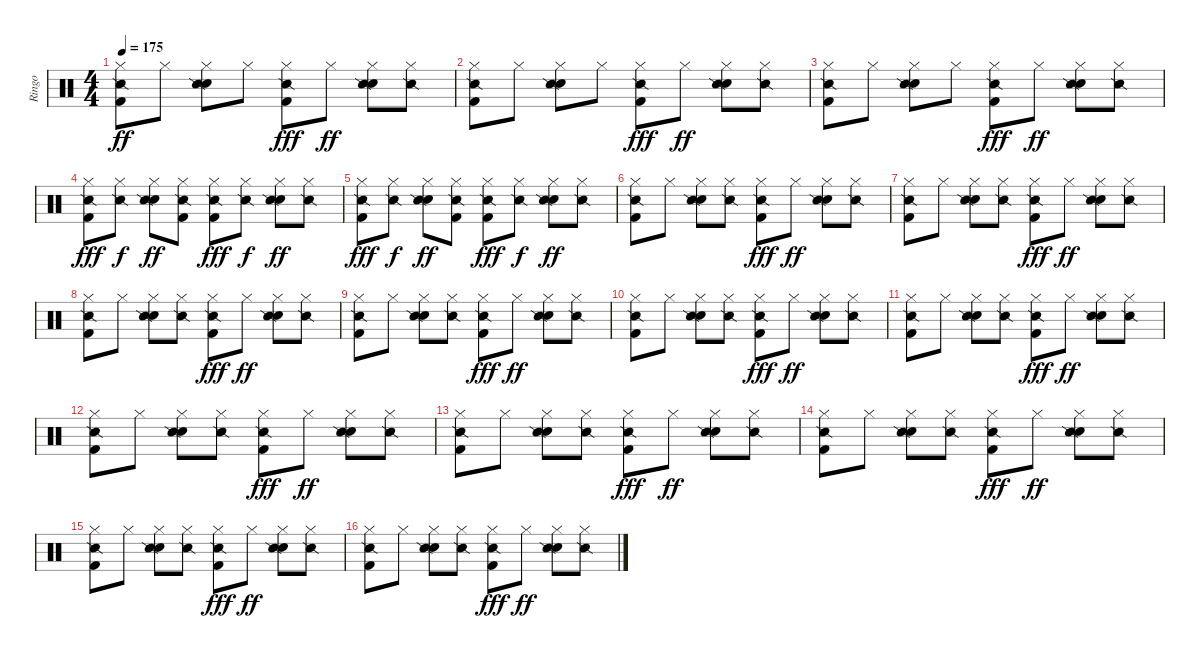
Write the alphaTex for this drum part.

\track ("Ringo" "Ringo") {instrument percussion}
\staff {score}
\articulation defaults
\ts (4 4)
\tempo 175
\clef neutral
\ks c
("Hi-Hat (closed)" "Snare (side stick) 2" "Kick (hit) 2").8{dy ff} "Hi-Hat (closed)".8 ("Hi-Hat (closed)" "Electric Snare (hit)" "Snare (side stick) 2").8 "Hi-Hat (closed)".8 ("Hi-Hat (closed)" "Snare (side stick) 2" "Kick (hit) 2").8{dy fff} "Hi-Hat (closed)".8{dy ff} ("Hi-Hat (closed)" "Electric Snare (hit)" "Snare (side stick) 2").8 ("Hi-Hat (closed)" "Snare (side stick) 2").8 |
("Hi-Hat (closed)" "Snare (side stick) 2" "Kick (hit) 2").8 "Hi-Hat (closed)".8 ("Hi-Hat (closed)" "Electric Snare (hit)" "Snare (side stick) 2").8 "Hi-Hat (closed)".8 ("Hi-Hat (closed)" "Snare (side stick) 2" "Kick (hit) 2").8{dy fff} "Hi-Hat (closed)".8{dy ff} ("Hi-Hat (closed)" "Electric Snare (hit)" "Snare (side stick) 2").8 ("Hi-Hat (closed)" "Snare (side stick) 2").8 |
("Hi-Hat (closed)" "Snare (side stick) 2" "Kick (hit) 2").8 "Hi-Hat (closed)".8 ("Hi-Hat (closed)" "Electric Snare (hit)" "Snare (side stick) 2").8 "Hi-Hat (closed)".8 ("Hi-Hat (closed)" "Snare (side stick) 2" "Kick (hit) 2").8{dy fff} "Hi-Hat (closed)".8{dy ff} ("Hi-Hat (closed)" "Electric Snare (hit)" "Snare (side stick) 2").8 ("Hi-Hat (closed)" "Snare (side stick) 2").8 |
("Hi-Hat (closed)" "Snare (side stick) 2" "Kick (hit) 2").8{dy fff} ("Hi-Hat (closed)" "Snare (side stick) 2").8{dy f} ("Hi-Hat (closed)" "Electric Snare (hit)" "Snare (side stick) 2").8{dy ff} ("Hi-Hat (closed)" "Snare (side stick) 2" "Kick (hit) 2").8 ("Hi-Hat (closed)" "Snare (side stick) 2" "Kick (hit) 2").8{dy fff} ("Hi-Hat (closed)" "Snare (side stick) 2").8{dy f} ("Hi-Hat (closed)" "Electric Snare (hit)" "Snare (side stick) 2").8{dy ff} ("Hi-Hat (closed)" "Snare (side stick) 2").8 |
("Hi-Hat (closed)" "Snare (side stick) 2" "Kick (hit) 2").8{dy fff} ("Hi-Hat (closed)" "Snare (side stick) 2").8{dy f} ("Hi-Hat (closed)" "Electric Snare (hit)" "Snare (side stick) 2").8{dy ff} ("Hi-Hat (closed)" "Snare (side stick) 2" "Kick (hit) 2").8 ("Hi-Hat (closed)" "Snare (side stick) 2" "Kick (hit) 2").8{dy fff} ("Hi-Hat (closed)" "Snare (side stick) 2").8{dy f} ("Hi-Hat (closed)" "Electric Snare (hit)" "Snare (side stick) 2").8{dy ff} ("Hi-Hat (closed)" "Snare (side stick) 2").8 |
("Hi-Hat (closed)" "Snare (side stick) 2" "Kick (hit) 2").8 "Hi-Hat (closed)".8 ("Hi-Hat (closed)" "Electric Snare (hit)" "Snare (side stick) 2").8 ("Hi-Hat (closed)" "Snare (side stick) 2").8 ("Hi-Hat (closed)" "Snare (side stick) 2" "Kick (hit) 2").8{dy fff} "Hi-Hat (closed)".8{dy ff} ("Hi-Hat (closed)" "Electric Snare (hit)" "Snare (side stick) 2").8 ("Hi-Hat (closed)" "Snare (side stick) 2").8 |
("Hi-Hat (closed)" "Snare (side stick) 2" "Kick (hit) 2").8 "Hi-Hat (closed)".8 ("Hi-Hat (closed)" "Electric Snare (hit)" "Snare (side stick) 2").8 ("Hi-Hat (closed)" "Snare (side stick) 2").8 ("Hi-Hat (closed)" "Snare (side stick) 2" "Kick (hit) 2").8{dy fff} "Hi-Hat (closed)".8{dy ff} ("Hi-Hat (closed)" "Electric Snare (hit)" "Snare (side stick) 2").8 ("Hi-Hat (closed)" "Snare (side stick) 2").8 |
("Hi-Hat (closed)" "Snare (side stick) 2" "Kick (hit) 2").8 "Hi-Hat (closed)".8 ("Hi-Hat (closed)" "Electric Snare (hit)" "Snare (side stick) 2").8 ("Hi-Hat (closed)" "Snare (side stick) 2").8 ("Hi-Hat (closed)" "Snare (side stick) 2" "Kick (hit) 2").8{dy fff} "Hi-Hat (closed)".8{dy ff} ("Hi-Hat (closed)" "Electric Snare (hit)" "Snare (side stick) 2").8 ("Hi-Hat (closed)" "Snare (side stick) 2").8 |
("Hi-Hat (closed)" "Snare (side stick) 2" "Kick (hit) 2").8 "Hi-Hat (closed)".8 ("Hi-Hat (closed)" "Electric Snare (hit)" "Snare (side stick) 2").8 ("Hi-Hat (closed)" "Snare (side stick) 2").8 ("Hi-Hat (closed)" "Snare (side stick) 2" "Kick (hit) 2").8{dy fff} "Hi-Hat (closed)".8{dy ff} ("Hi-Hat (closed)" "Electric Snare (hit)" "Snare (side stick) 2").8 ("Hi-Hat (closed)" "Snare (side stick) 2").8 |
("Hi-Hat (closed)" "Snare (side stick) 2" "Kick (hit) 2").8 "Hi-Hat (closed)".8 ("Hi-Hat (closed)" "Electric Snare (hit)" "Snare (side stick) 2").8 ("Hi-Hat (closed)" "Snare (side stick) 2").8 ("Hi-Hat (closed)" "Snare (side stick) 2" "Kick (hit) 2").8{dy fff} "Hi-Hat (closed)".8{dy ff} ("Hi-Hat (closed)" "Electric Snare (hit)" "Snare (side stick) 2").8 ("Hi-Hat (closed)" "Snare (side stick) 2").8 |
("Hi-Hat (closed)" "Snare (side stick) 2" "Kick (hit) 2").8 "Hi-Hat (closed)".8 ("Hi-Hat (closed)" "Electric Snare (hit)" "Snare (side stick) 2").8 ("Hi-Hat (closed)" "Snare (side stick) 2").8 ("Hi-Hat (closed)" "Snare (side stick) 2" "Kick (hit) 2").8{dy fff} "Hi-Hat (closed)".8{dy ff} ("Hi-Hat (closed)" "Electric Snare (hit)" "Snare (side stick) 2").8 ("Hi-Hat (closed)" "Snare (side stick) 2").8 |
("Hi-Hat (closed)" "Snare (side stick) 2" "Kick (hit) 2").8 "Hi-Hat (closed)".8 ("Hi-Hat (closed)" "Electric Snare (hit)" "Snare (side stick) 2").8 ("Hi-Hat (closed)" "Snare (side stick) 2").8 ("Hi-Hat (closed)" "Snare (side stick) 2" "Kick (hit) 2").8{dy fff} "Hi-Hat (closed)".8{dy ff} ("Hi-Hat (closed)" "Electric Snare (hit)" "Snare (side stick) 2").8 ("Hi-Hat (closed)" "Snare (side stick) 2").8 |
("Hi-Hat (closed)" "Snare (side stick) 2" "Kick (hit) 2").8 "Hi-Hat (closed)".8 ("Hi-Hat (closed)" "Electric Snare (hit)" "Snare (side stick) 2").8 ("Hi-Hat (closed)" "Snare (side stick) 2").8 ("Hi-Hat (closed)" "Snare (side stick) 2" "Kick (hit) 2").8{dy fff} "Hi-Hat (closed)".8{dy ff} ("Hi-Hat (closed)" "Electric Snare (hit)" "Snare (side stick) 2").8 ("Hi-Hat (closed)" "Snare (side stick) 2").8 |
("Hi-Hat (closed)" "Snare (side stick) 2" "Kick (hit) 2").8 "Hi-Hat (closed)".8 ("Hi-Hat (closed)" "Electric Snare (hit)" "Snare (side stick) 2").8 ("Hi-Hat (closed)" "Snare (side stick) 2").8 ("Hi-Hat (closed)" "Snare (side stick) 2" "Kick (hit) 2").8{dy fff} "Hi-Hat (closed)".8{dy ff} ("Hi-Hat (closed)" "Electric Snare (hit)" "Snare (side stick) 2").8 ("Hi-Hat (closed)" "Snare (side stick) 2").8 |
("Hi-Hat (closed)" "Snare (side stick) 2" "Kick (hit) 2").8 "Hi-Hat (closed)".8 ("Hi-Hat (closed)" "Electric Snare (hit)" "Snare (side stick) 2").8 ("Hi-Hat (closed)" "Snare (side stick) 2").8 ("Hi-Hat (closed)" "Snare (side stick) 2" "Kick (hit) 2").8{dy fff} "Hi-Hat (closed)".8{dy ff} ("Hi-Hat (closed)" "Electric Snare (hit)" "Snare (side stick) 2").8 ("Hi-Hat (closed)" "Snare (side stick) 2").8 |
("Hi-Hat (closed)" "Snare (side stick) 2" "Kick (hit) 2").8 "Hi-Hat (closed)".8 ("Hi-Hat (closed)" "Electric Snare (hit)" "Snare (side stick) 2").8 ("Hi-Hat (closed)" "Snare (side stick) 2").8 ("Hi-Hat (closed)" "Snare (side stick) 2" "Kick (hit) 2").8{dy fff} "Hi-Hat (closed)".8{dy ff} ("Hi-Hat (closed)" "Electric Snare (hit)" "Snare (side stick) 2").8 ("Hi-Hat (closed)" "Snare (side stick) 2").8
